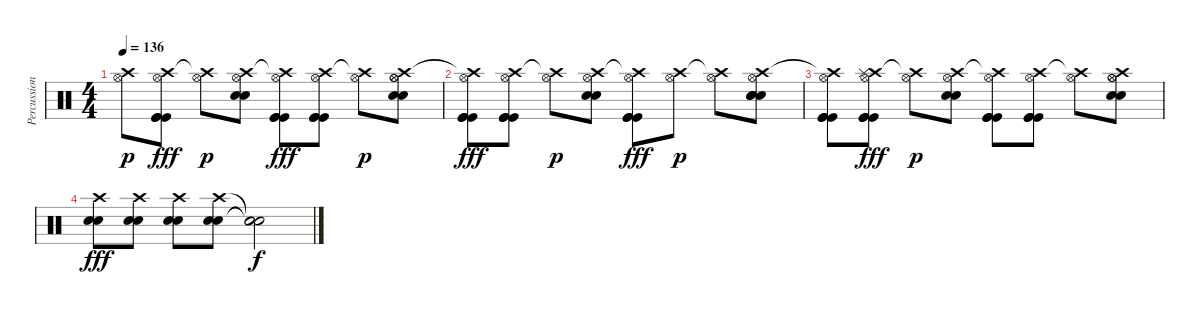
\track ("Percussions" "Percussion") {instrument percussion}
\staff {score}
\articulation defaults
\ts (4 4)
\tempo 136
\clef neutral
\ks c
("Crash high (hit)"{t} "Hi-Hat (open)").8{dy p} ("Crash high (hit)" "Hi-Hat (open)" "Kick (hit)" "Kick (hit)" "Kick (hit)").8{dy fff} ("Crash high (hit)"{t} "Hi-Hat (open)").8{dy p} ("Crash high (hit)" "Hi-Hat (open)" "Snare (hit) 2" "Snare (hit) 2").8 ("Crash high (hit)"{t} "Hi-Hat (open)" "Kick (hit)" "Kick (hit)" "Kick (hit)").8{dy fff} ("Crash high (hit)" "Hi-Hat (open)" "Kick (hit)" "Kick (hit)" "Kick (hit)").8 ("Crash high (hit)"{t} "Hi-Hat (open)").8{dy p} ("Crash high (hit)" "Hi-Hat (open)" "Snare (hit) 2" "Snare (hit) 2" "Hi-Hat (open)").8 |
("Crash high (hit)"{t} "Hi-Hat (open)" "Kick (hit)" "Kick (hit)" "Kick (hit)").8{dy fff} ("Crash high (hit)" "Hi-Hat (open)" "Kick (hit)" "Kick (hit)" "Kick (hit)").8 ("Crash high (hit)"{t} "Hi-Hat (open)").8{dy p} ("Crash high (hit)" "Hi-Hat (open)" "Snare (hit) 2" "Snare (hit) 2").8 ("Crash high (hit)"{t} "Hi-Hat (open)" "Kick (hit)" "Kick (hit)" "Kick (hit)").8{dy fff} ("Crash high (hit)" "Hi-Hat (open)").8{dy p} ("Crash high (hit)"{t} "Hi-Hat (open)").8 ("Crash high (hit)" "Hi-Hat (open)" "Snare (hit) 2" "Snare (hit) 2" "Snare (hit) 2").8 |
("Crash high (hit)"{t} "Hi-Hat (open)" "Kick (hit)" "Kick (hit)" "Kick (hit)").8 ("Crash high (hit)" "Hi-Hat (open)" "Splash (hit)" "Kick (hit)" "Kick (hit)" "Kick (hit)").8{dy fff} ("Crash high (hit)"{t} "Hi-Hat (open)").8{dy p} ("Crash high (hit)" "Hi-Hat (open)" "Snare (hit) 2" "Snare (hit) 2").8 ("Crash high (hit)"{t} "Hi-Hat (open)" "Kick (hit)" "Kick (hit)" "Kick (hit)").8 ("Crash high (hit)" "Hi-Hat (open)" "Kick (hit)" "Kick (hit)" "Kick (hit)").8 ("Crash high (hit)"{t} "Hi-Hat (open)").8 ("Crash high (hit)" "Hi-Hat (open)" "Snare (hit) 2" "Snare (hit) 2" "Hi-Hat (open)").8 |
("Crash high (hit)" "Snare (hit) 2" "Snare (hit) 2").8{dy fff} ("Crash high (hit)" "Snare (hit) 2" "Snare (hit) 2").8 ("Crash high (hit)" "Snare (hit) 2" "Snare (hit) 2").8 ("Crash high (hit)" "Snare (hit) 2" "Snare (hit) 2").8 ("Snare (hit)"{t} "Snare (hit)"{t} "Snare (hit)"{t}).2{dy f}
